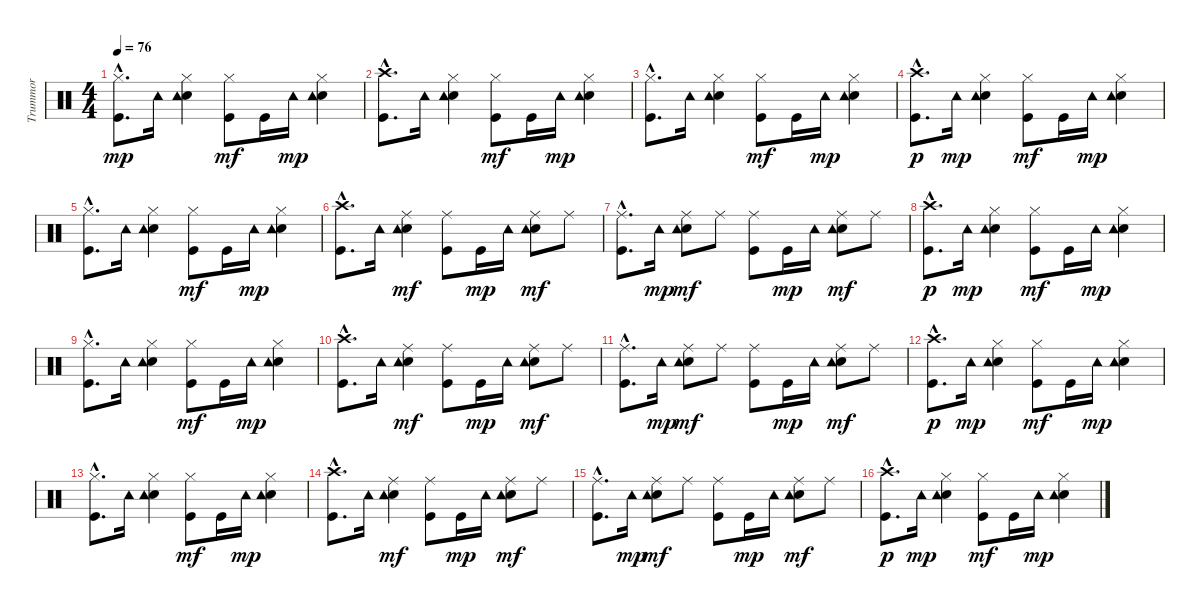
\track ("Trummor" "Trummor") {instrument percussion}
\staff {score}
\articulation defaults
\ts (4 4)
\tempo 76
\clef neutral
\ks c
("Hi-Hat (closed)"{hac} "Kick (hit)"{hac}).8{d dy mp} "Tambourine (hit)".16 ("Hi-Hat (closed)" "Snare (hit) 2" "Tambourine (hit)").4 ("Hi-Hat (closed)" "Kick (hit)").8{dy mf} "Kick (hit)".16 "Tambourine (hit)".16{dy mp} ("Hi-Hat (closed)" "Snare (hit) 2" "Tambourine (hit)").4 |
("Crash high (hit)"{hac} "Kick (hit)"{hac}).8{d} "Tambourine (hit)".16 ("Hi-Hat (closed)" "Snare (hit) 2" "Tambourine (hit)").4 ("Hi-Hat (closed)" "Kick (hit)").8{dy mf} "Kick (hit)".16 "Tambourine (hit)".16{dy mp} ("Hi-Hat (closed)" "Snare (hit) 2" "Tambourine (hit)").4 |
("Hi-Hat (closed)"{hac} "Kick (hit)"{hac}).8{d} "Tambourine (hit)".16 ("Hi-Hat (closed)" "Snare (hit) 2" "Tambourine (hit)").4 ("Hi-Hat (closed)" "Kick (hit)").8{dy mf} "Kick (hit)".16 "Tambourine (hit)".16{dy mp} ("Hi-Hat (closed)" "Snare (hit) 2" "Tambourine (hit)").4 |
("Crash high (hit)"{hac} "Kick (hit)"{hac}).8{d dy p} "Tambourine (hit)".16{dy mp} ("Hi-Hat (closed)" "Snare (hit) 2" "Tambourine (hit)").4 ("Hi-Hat (closed)" "Kick (hit)").8{dy mf} "Kick (hit)".16 "Tambourine (hit)".16{dy mp} ("Hi-Hat (closed)" "Snare (hit) 2" "Tambourine (hit)").4 |
("Hi-Hat (closed)"{hac} "Kick (hit)"{hac}).8{d} "Tambourine (hit)".16 ("Hi-Hat (closed)" "Snare (hit) 2" "Tambourine (hit)").4 ("Hi-Hat (closed)" "Kick (hit)").8{dy mf} "Kick (hit)".16 "Tambourine (hit)".16{dy mp} ("Hi-Hat (closed)" "Snare (hit) 2" "Tambourine (hit)").4 |
("Crash high (hit)"{hac} "Kick (hit)"{hac}).8{d} "Tambourine (hit)".16 ("Ride (middle)" "Snare (hit) 2" "Tambourine (hit)").4{dy mf} ("Ride (middle)" "Kick (hit)").8 "Kick (hit)".16{dy mp} "Tambourine (hit)".16 ("Ride (middle)" "Snare (hit) 2" "Tambourine (hit)").8{dy mf} "Ride (middle)".8 |
("Ride (middle)"{hac} "Kick (hit)"{hac}).8{d} "Tambourine (hit)".16{dy mp} ("Ride (middle)" "Snare (hit) 2" "Tambourine (hit)").8{dy mf} "Ride (middle)".8 ("Ride (middle)" "Kick (hit)").8 "Kick (hit)".16{dy mp} "Tambourine (hit)".16 ("Ride (middle)" "Snare (hit) 2" "Tambourine (hit)").8{dy mf} "Ride (middle)".8 |
("Crash high (hit)"{hac} "Kick (hit)"{hac}).8{d dy p} "Tambourine (hit)".16{dy mp} ("Hi-Hat (closed)" "Snare (hit) 2" "Tambourine (hit)").4 ("Hi-Hat (closed)" "Kick (hit)").8{dy mf} "Kick (hit)".16 "Tambourine (hit)".16{dy mp} ("Hi-Hat (closed)" "Snare (hit) 2" "Tambourine (hit)").4 |
("Hi-Hat (closed)"{hac} "Kick (hit)"{hac}).8{d} "Tambourine (hit)".16 ("Hi-Hat (closed)" "Snare (hit) 2" "Tambourine (hit)").4 ("Hi-Hat (closed)" "Kick (hit)").8{dy mf} "Kick (hit)".16 "Tambourine (hit)".16{dy mp} ("Hi-Hat (closed)" "Snare (hit) 2" "Tambourine (hit)").4 |
("Crash high (hit)"{hac} "Kick (hit)"{hac}).8{d} "Tambourine (hit)".16 ("Ride (middle)" "Snare (hit) 2" "Tambourine (hit)").4{dy mf} ("Ride (middle)" "Kick (hit)").8 "Kick (hit)".16{dy mp} "Tambourine (hit)".16 ("Ride (middle)" "Snare (hit) 2" "Tambourine (hit)").8{dy mf} "Ride (middle)".8 |
("Ride (middle)"{hac} "Kick (hit)"{hac}).8{d} "Tambourine (hit)".16{dy mp} ("Ride (middle)" "Snare (hit) 2" "Tambourine (hit)").8{dy mf} "Ride (middle)".8 ("Ride (middle)" "Kick (hit)").8 "Kick (hit)".16{dy mp} "Tambourine (hit)".16 ("Ride (middle)" "Snare (hit) 2" "Tambourine (hit)").8{dy mf} "Ride (middle)".8 |
("Crash high (hit)"{hac} "Kick (hit)"{hac}).8{d dy p} "Tambourine (hit)".16{dy mp} ("Hi-Hat (closed)" "Snare (hit) 2" "Tambourine (hit)").4 ("Hi-Hat (closed)" "Kick (hit)").8{dy mf} "Kick (hit)".16 "Tambourine (hit)".16{dy mp} ("Hi-Hat (closed)" "Snare (hit) 2" "Tambourine (hit)").4 |
("Hi-Hat (closed)"{hac} "Kick (hit)"{hac}).8{d} "Tambourine (hit)".16 ("Hi-Hat (closed)" "Snare (hit) 2" "Tambourine (hit)").4 ("Hi-Hat (closed)" "Kick (hit)").8{dy mf} "Kick (hit)".16 "Tambourine (hit)".16{dy mp} ("Hi-Hat (closed)" "Snare (hit) 2" "Tambourine (hit)").4 |
("Crash high (hit)"{hac} "Kick (hit)"{hac}).8{d} "Tambourine (hit)".16 ("Ride (middle)" "Snare (hit) 2" "Tambourine (hit)").4{dy mf} ("Ride (middle)" "Kick (hit)").8 "Kick (hit)".16{dy mp} "Tambourine (hit)".16 ("Ride (middle)" "Snare (hit) 2" "Tambourine (hit)").8{dy mf} "Ride (middle)".8 |
("Ride (middle)"{hac} "Kick (hit)"{hac}).8{d} "Tambourine (hit)".16{dy mp} ("Ride (middle)" "Snare (hit) 2" "Tambourine (hit)").8{dy mf} "Ride (middle)".8 ("Ride (middle)" "Kick (hit)").8 "Kick (hit)".16{dy mp} "Tambourine (hit)".16 ("Ride (middle)" "Snare (hit) 2" "Tambourine (hit)").8{dy mf} "Ride (middle)".8 |
("Crash high (hit)"{hac} "Kick (hit)"{hac}).8{d dy p} "Tambourine (hit)".16{dy mp} ("Hi-Hat (closed)" "Snare (hit) 2" "Tambourine (hit)").4 ("Hi-Hat (closed)" "Kick (hit)").8{dy mf} "Kick (hit)".16 "Tambourine (hit)".16{dy mp} ("Hi-Hat (closed)" "Snare (hit) 2" "Tambourine (hit)").4
